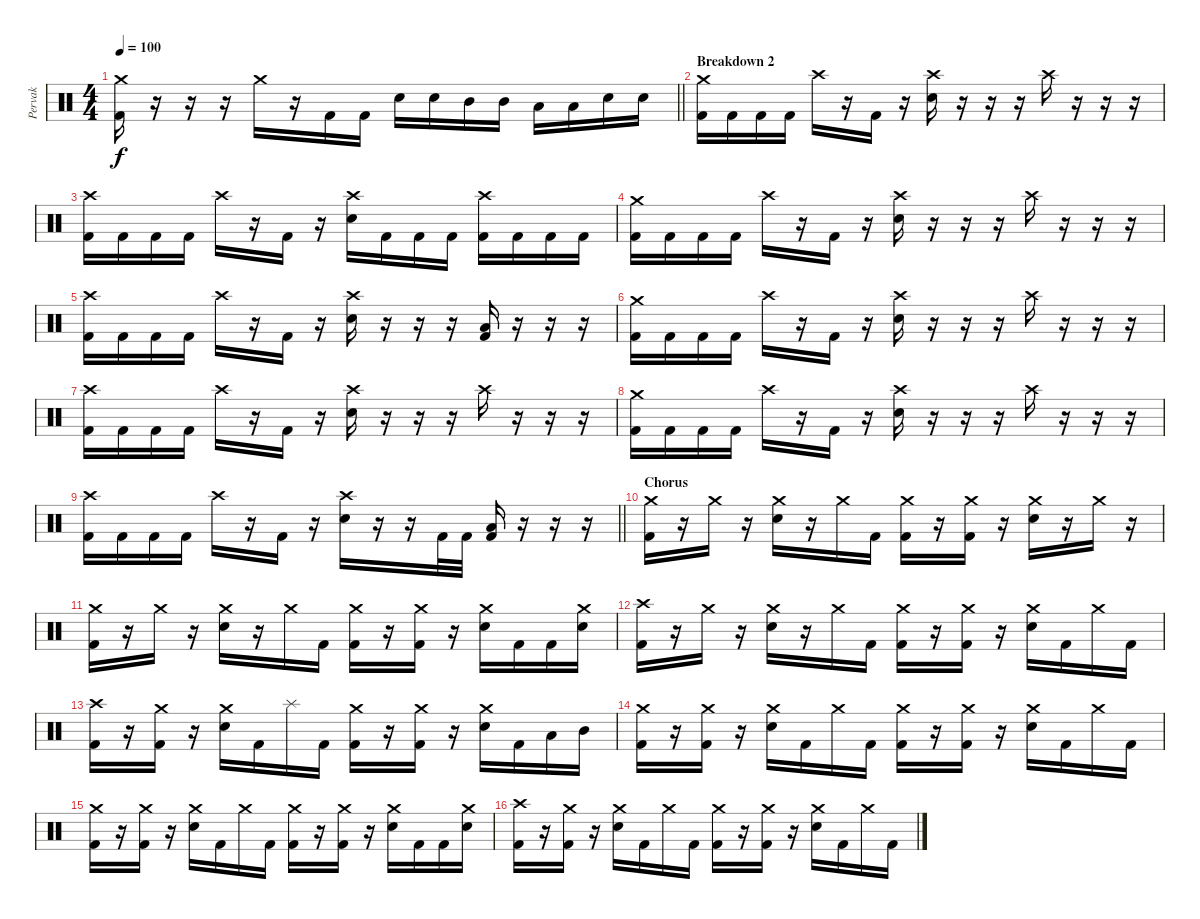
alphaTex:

\track ("Pervak" "Pervak") {instrument percussion}
\staff {score}
\articulation defaults
\ts (4 4)
\tempo 100
\clef neutral
\barLineRight lightlight
\ks c
("Crash medium (hit)" "Kick (hit) 2").16{dy f} r.16 r.16 r.16 "Crash medium (hit)".16 r.16 "Kick (hit) 2".16 "Kick (hit) 2".16 "Electric Snare (hit)".16 "Electric Snare (hit)".16 "Mid Tom (hit)".16 "Mid Tom (hit)".16 "Low Tom (hit)".16 "Low Tom (hit)".16 "Electric Snare (hit)".16 "Electric Snare (hit)".16 |
\section ("" "Breakdown 2")
("Crash medium (hit)" "Kick (hit) 2").16 "Kick (hit) 2".16 "Kick (hit) 2".16 "Kick (hit) 2".16 "Crash high (hit)".16 r.16 "Kick (hit) 2".16 r.16 ("Crash high (hit)" "Electric Snare (hit)").16 r.16 r.16 r.16 "Crash high (hit)".16 r.16 r.16 r.16 |
("Crash high (hit)" "Kick (hit) 2").16 "Kick (hit) 2".16 "Kick (hit) 2".16 "Kick (hit) 2".16 "Crash high (hit)".16 r.16 "Kick (hit) 2".16 r.16 ("Crash high (hit)" "Electric Snare (hit)").16 "Kick (hit) 2".16 "Kick (hit) 2".16 "Kick (hit) 2".16 ("Crash high (hit)" "Kick (hit) 2").16 "Kick (hit) 2".16 "Kick (hit) 2".16 "Kick (hit) 2".16 |
("Crash medium (hit)" "Kick (hit) 2").16 "Kick (hit) 2".16 "Kick (hit) 2".16 "Kick (hit) 2".16 "Crash high (hit)".16 r.16 "Kick (hit) 2".16 r.16 ("Crash high (hit)" "Electric Snare (hit)").16 r.16 r.16 r.16 "Crash high (hit)".16 r.16 r.16 r.16 |
("Crash high (hit)" "Kick (hit) 2").16 "Kick (hit) 2".16 "Kick (hit) 2".16 "Kick (hit) 2".16 "Crash high (hit)".16 r.16 "Kick (hit) 2".16 r.16 ("Crash high (hit)" "Electric Snare (hit)").16 r.16 r.16 r.16 ("Low Tom (hit)" "Kick (hit) 2").16 r.16 r.16 r.16 |
("Crash medium (hit)" "Kick (hit) 2").16 "Kick (hit) 2".16 "Kick (hit) 2".16 "Kick (hit) 2".16 "Crash high (hit)".16 r.16 "Kick (hit) 2".16 r.16 ("Crash high (hit)" "Electric Snare (hit)").16 r.16 r.16 r.16 "Crash high (hit)".16 r.16 r.16 r.16 |
("Crash high (hit)" "Kick (hit) 2").16 "Kick (hit) 2".16 "Kick (hit) 2".16 "Kick (hit) 2".16 "Crash high (hit)".16 r.16 "Kick (hit) 2".16 r.16 ("Crash high (hit)" "Electric Snare (hit)").16 r.16 r.16 r.16 "Crash high (hit)".16 r.16 r.16 r.16 |
("Crash medium (hit)" "Kick (hit) 2").16 "Kick (hit) 2".16 "Kick (hit) 2".16 "Kick (hit) 2".16 "Crash high (hit)".16 r.16 "Kick (hit) 2".16 r.16 ("Crash high (hit)" "Electric Snare (hit)").16 r.16 r.16 r.16 "Crash high (hit)".16 r.16 r.16 r.16 |
\barLineRight lightlight
("Crash high (hit)" "Kick (hit) 2").16 "Kick (hit) 2".16 "Kick (hit) 2".16 "Kick (hit) 2".16 "Crash high (hit)".16 r.16 "Kick (hit) 2".16 r.16 ("Crash high (hit)" "Electric Snare (hit)").16 r.16 r.16 "Kick (hit) 2".32 "Kick (hit) 2".32 ("Low Tom (hit)" "Kick (hit) 2").16 r.16 r.16 r.16 |
\section ("" "Chorus")
("Crash medium (hit)" "Kick (hit) 2").16{volume 11} r.16 "Crash medium (hit)".16 r.16 ("Crash medium (hit)" "Electric Snare (hit)").16 r.16 "Crash medium (hit)".16 "Kick (hit) 2".16 ("Crash medium (hit)" "Kick (hit) 2").16 r.16 ("Crash medium (hit)" "Kick (hit) 2").16 r.16 ("Crash medium (hit)" "Electric Snare (hit)").16 r.16 "Crash medium (hit)".16 r.16 |
("Crash medium (hit)" "Kick (hit) 2").16 r.16 "Crash medium (hit)".16 r.16 ("Crash medium (hit)" "Electric Snare (hit)").16 r.16 "Crash medium (hit)".16 "Kick (hit) 2".16 ("Crash medium (hit)" "Kick (hit) 2").16 r.16 ("Crash medium (hit)" "Kick (hit) 2").16 r.16 ("Crash medium (hit)" "Electric Snare (hit)").16 "Kick (hit) 2".16 "Kick (hit) 2".16 ("Crash medium (hit)" "Electric Snare (hit)").16 |
("Crash high (hit)" "Kick (hit) 2").16 r.16 "Crash medium (hit)".16 r.16 ("Crash medium (hit)" "Electric Snare (hit)").16 r.16 "Crash medium (hit)".16 "Kick (hit) 2".16 ("Crash medium (hit)" "Kick (hit) 2").16 r.16 ("Crash medium (hit)" "Kick (hit) 2").16 r.16 ("Crash medium (hit)" "Electric Snare (hit)").16 "Kick (hit) 2".16 "Crash medium (hit)".16 "Kick (hit) 2".16 |
("Crash high (hit)" "Kick (hit) 2").16 r.16 ("Crash medium (hit)" "Kick (hit) 2").16 r.16 ("Crash medium (hit)" "Electric Snare (hit)").16 "Kick (hit) 2".16 "Splash (hit)".16 "Kick (hit) 2".16 ("Crash medium (hit)" "Kick (hit) 2").16 r.16 ("Crash medium (hit)" "Kick (hit) 2").16 r.16 ("Crash medium (hit)" "Electric Snare (hit)").16 "Kick (hit) 2".16 "Low Tom (hit)".16 "Mid Tom (hit)".16 |
("Crash medium (hit)" "Kick (hit) 2").16 r.16 ("Crash medium (hit)" "Kick (hit) 2").16 r.16 ("Crash medium (hit)" "Electric Snare (hit)").16 "Kick (hit) 2".16 "Crash medium (hit)".16 "Kick (hit) 2".16 ("Crash medium (hit)" "Kick (hit) 2").16 r.16 ("Crash medium (hit)" "Kick (hit) 2").16 r.16 ("Crash medium (hit)" "Electric Snare (hit)").16 "Kick (hit) 2".16 "Crash medium (hit)".16 "Kick (hit) 2".16 |
("Crash medium (hit)" "Kick (hit) 2").16 r.16 ("Crash medium (hit)" "Kick (hit) 2").16 r.16 ("Crash medium (hit)" "Electric Snare (hit)").16 "Kick (hit) 2".16 "Crash medium (hit)".16 "Kick (hit) 2".16 ("Crash medium (hit)" "Kick (hit) 2").16 r.16 ("Crash medium (hit)" "Kick (hit) 2").16 r.16 ("Crash medium (hit)" "Electric Snare (hit)").16 "Kick (hit) 2".16 "Kick (hit) 2".16 ("Crash medium (hit)" "Electric Snare (hit)").16 |
("Crash high (hit)" "Kick (hit) 2").16 r.16 ("Crash medium (hit)" "Kick (hit) 2").16 r.16 ("Crash medium (hit)" "Electric Snare (hit)").16 "Kick (hit) 2".16 "Crash medium (hit)".16 "Kick (hit) 2".16 ("Crash medium (hit)" "Kick (hit) 2").16 r.16 ("Crash medium (hit)" "Kick (hit) 2").16 r.16 ("Crash medium (hit)" "Electric Snare (hit)").16 "Kick (hit) 2".16 "Crash medium (hit)".16 "Kick (hit) 2".16
